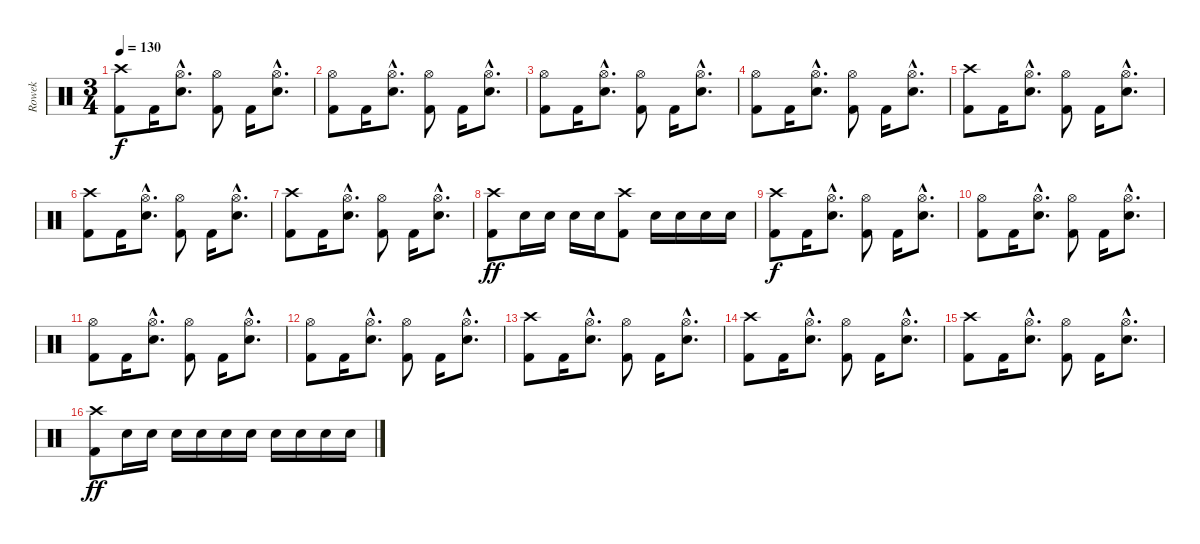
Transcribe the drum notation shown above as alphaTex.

\track ("Rowek" "Rowek") {instrument percussion}
\staff {score}
\articulation defaults
\ts (3 4)
\tempo 130
\clef neutral
\ks c
("Crash high (hit)" "Kick (hit) 2").8{dy f} "Kick (hit) 2".16 ("Hi-Hat (open)"{hac} "Snare (hit) 2"{hac}).8{d} ("Hi-Hat (open)" "Kick (hit) 2").8 "Kick (hit) 2".16 ("Hi-Hat (open)"{hac} "Snare (hit) 2"{hac}).8{d} |
("Hi-Hat (open)" "Kick (hit) 2").8 "Kick (hit) 2".16 ("Hi-Hat (open)"{hac} "Snare (hit) 2"{hac}).8{d} ("Hi-Hat (open)" "Kick (hit) 2").8 "Kick (hit) 2".16 ("Hi-Hat (open)"{hac} "Snare (hit) 2"{hac}).8{d} |
("Hi-Hat (open)" "Kick (hit) 2").8 "Kick (hit) 2".16 ("Hi-Hat (open)"{hac} "Snare (hit) 2"{hac}).8{d} ("Hi-Hat (open)" "Kick (hit) 2").8 "Kick (hit) 2".16 ("Hi-Hat (open)"{hac} "Snare (hit) 2"{hac}).8{d} |
("Hi-Hat (open)" "Kick (hit) 2").8 "Kick (hit) 2".16 ("Hi-Hat (open)"{hac} "Snare (hit) 2"{hac}).8{d} ("Hi-Hat (open)" "Kick (hit) 2").8 "Kick (hit) 2".16 ("Hi-Hat (open)"{hac} "Snare (hit) 2"{hac}).8{d} |
("Crash high (hit)" "Kick (hit) 2").8 "Kick (hit) 2".16 ("Hi-Hat (open)"{hac} "Snare (hit) 2"{hac}).8{d} ("Hi-Hat (open)" "Kick (hit) 2").8 "Kick (hit) 2".16 ("Hi-Hat (open)"{hac} "Snare (hit) 2"{hac}).8{d} |
("Crash high (hit)" "Kick (hit) 2").8 "Kick (hit) 2".16 ("Hi-Hat (open)"{hac} "Snare (hit) 2"{hac}).8{d} ("Hi-Hat (open)" "Kick (hit) 2").8 "Kick (hit) 2".16 ("Hi-Hat (open)"{hac} "Snare (hit) 2"{hac}).8{d} |
("Crash high (hit)" "Kick (hit) 2").8 "Kick (hit) 2".16 ("Hi-Hat (open)"{hac} "Snare (hit) 2"{hac}).8{d} ("Hi-Hat (open)" "Kick (hit) 2").8 "Kick (hit) 2".16 ("Hi-Hat (open)"{hac} "Snare (hit) 2"{hac}).8{d} |
("Kick (hit) 2" "Crash high (hit)").8{dy ff} "Electric Snare (hit)".16 "Electric Snare (hit)".16 "Electric Snare (hit)".16 "Electric Snare (hit)".16 ("Kick (hit) 2" "Crash high (hit)").8 "Electric Snare (hit)".16 "Electric Snare (hit)".16 "Electric Snare (hit)".16 "Electric Snare (hit)".16 |
("Crash high (hit)" "Kick (hit) 2").8{dy f} "Kick (hit) 2".16 ("Hi-Hat (open)"{hac} "Snare (hit) 2"{hac}).8{d} ("Hi-Hat (open)" "Kick (hit) 2").8 "Kick (hit) 2".16 ("Hi-Hat (open)"{hac} "Snare (hit) 2"{hac}).8{d} |
("Hi-Hat (open)" "Kick (hit) 2").8 "Kick (hit) 2".16 ("Hi-Hat (open)"{hac} "Snare (hit) 2"{hac}).8{d} ("Hi-Hat (open)" "Kick (hit) 2").8 "Kick (hit) 2".16 ("Hi-Hat (open)"{hac} "Snare (hit) 2"{hac}).8{d} |
("Hi-Hat (open)" "Kick (hit) 2").8 "Kick (hit) 2".16 ("Hi-Hat (open)"{hac} "Snare (hit) 2"{hac}).8{d} ("Hi-Hat (open)" "Kick (hit) 2").8 "Kick (hit) 2".16 ("Hi-Hat (open)"{hac} "Snare (hit) 2"{hac}).8{d} |
("Hi-Hat (open)" "Kick (hit) 2").8 "Kick (hit) 2".16 ("Hi-Hat (open)"{hac} "Snare (hit) 2"{hac}).8{d} ("Hi-Hat (open)" "Kick (hit) 2").8 "Kick (hit) 2".16 ("Hi-Hat (open)"{hac} "Snare (hit) 2"{hac}).8{d} |
("Crash high (hit)" "Kick (hit) 2").8 "Kick (hit) 2".16 ("Hi-Hat (open)"{hac} "Snare (hit) 2"{hac}).8{d} ("Hi-Hat (open)" "Kick (hit) 2").8 "Kick (hit) 2".16 ("Hi-Hat (open)"{hac} "Snare (hit) 2"{hac}).8{d} |
("Crash high (hit)" "Kick (hit) 2").8 "Kick (hit) 2".16 ("Hi-Hat (open)"{hac} "Snare (hit) 2"{hac}).8{d} ("Hi-Hat (open)" "Kick (hit) 2").8 "Kick (hit) 2".16 ("Hi-Hat (open)"{hac} "Snare (hit) 2"{hac}).8{d} |
("Crash high (hit)" "Kick (hit) 2").8 "Kick (hit) 2".16 ("Hi-Hat (open)"{hac} "Snare (hit) 2"{hac}).8{d} ("Hi-Hat (open)" "Kick (hit) 2").8 "Kick (hit) 2".16 ("Hi-Hat (open)"{hac} "Snare (hit) 2"{hac}).8{d} |
("Kick (hit) 2" "Crash high (hit)").8{dy ff} "Electric Snare (hit)".16 "Electric Snare (hit)".16 "Electric Snare (hit)".16 "Electric Snare (hit)".16 "Electric Snare (hit)".16 "Electric Snare (hit)".16 "Electric Snare (hit)".16 "Electric Snare (hit)".16 "Electric Snare (hit)".16 "Electric Snare (hit)".16
